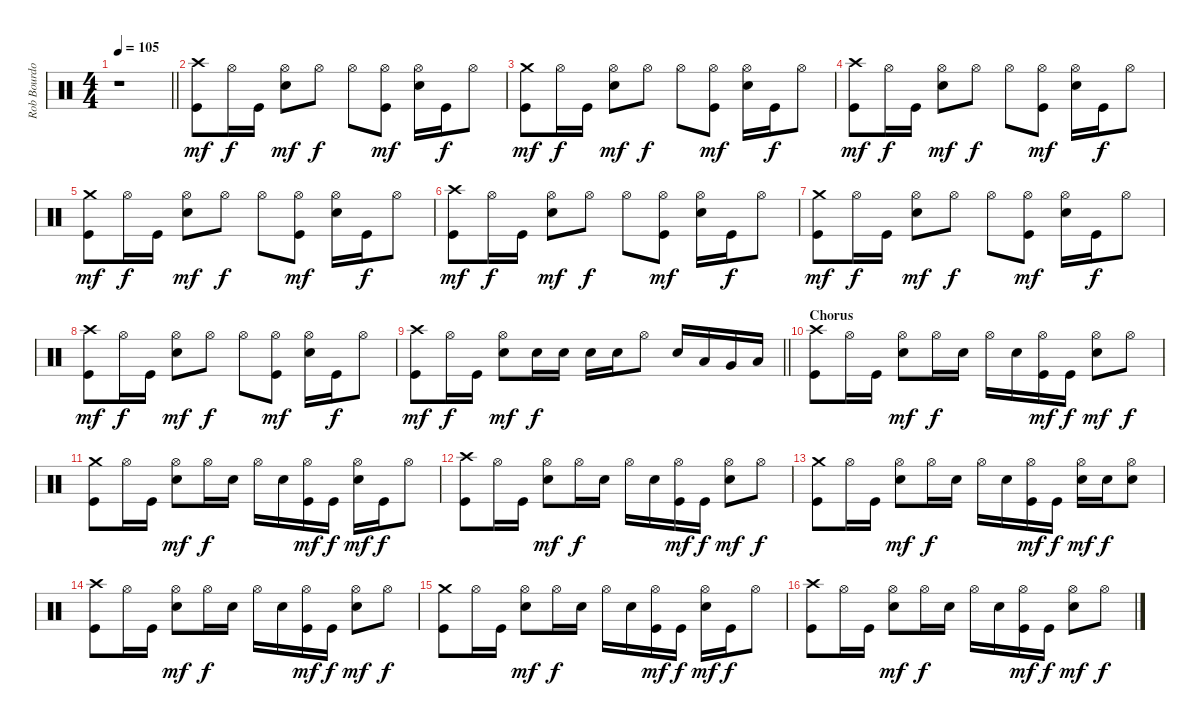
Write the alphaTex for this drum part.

\track ("Rob Bourdon - Drums" "Rob Bourdo") {instrument percussion}
\staff {score}
\articulation defaults
\ts (4 4)
\tempo 105
\clef neutral
\barLineRight lightlight
\ks c
r.1{dy f} |
("Crash high (hit)" "Kick (hit)").8{dy mf} "Hi-Hat (open)".16{dy f} "Kick (hit)".16 ("Hi-Hat (open)" "Electric Snare (hit)").8{dy mf} "Hi-Hat (open)".8{dy f} "Hi-Hat (open)".8 ("Hi-Hat (open)" "Kick (hit)").8{dy mf} ("Hi-Hat (open)" "Electric Snare (hit)").16 "Kick (hit)".16{dy f} "Hi-Hat (open)".8 |
("Crash medium (hit)" "Kick (hit)").8{dy mf} "Hi-Hat (open)".16{dy f} "Kick (hit)".16 ("Hi-Hat (open)" "Electric Snare (hit)").8{dy mf} "Hi-Hat (open)".8{dy f} "Hi-Hat (open)".8 ("Hi-Hat (open)" "Kick (hit)").8{dy mf} ("Hi-Hat (open)" "Electric Snare (hit)").16 "Kick (hit)".16{dy f} "Hi-Hat (open)".8 |
("Crash high (hit)" "Kick (hit)").8{dy mf} "Hi-Hat (open)".16{dy f} "Kick (hit)".16 ("Hi-Hat (open)" "Electric Snare (hit)").8{dy mf} "Hi-Hat (open)".8{dy f} "Hi-Hat (open)".8 ("Hi-Hat (open)" "Kick (hit)").8{dy mf} ("Hi-Hat (open)" "Electric Snare (hit)").16 "Kick (hit)".16{dy f} "Hi-Hat (open)".8 |
("Crash medium (hit)" "Kick (hit)").8{dy mf} "Hi-Hat (open)".16{dy f} "Kick (hit)".16 ("Hi-Hat (open)" "Electric Snare (hit)").8{dy mf} "Hi-Hat (open)".8{dy f} "Hi-Hat (open)".8 ("Hi-Hat (open)" "Kick (hit)").8{dy mf} ("Hi-Hat (open)" "Electric Snare (hit)").16 "Kick (hit)".16{dy f} "Hi-Hat (open)".8 |
("Crash high (hit)" "Kick (hit)").8{dy mf} "Hi-Hat (open)".16{dy f} "Kick (hit)".16 ("Hi-Hat (open)" "Electric Snare (hit)").8{dy mf} "Hi-Hat (open)".8{dy f} "Hi-Hat (open)".8 ("Hi-Hat (open)" "Kick (hit)").8{dy mf} ("Hi-Hat (open)" "Electric Snare (hit)").16 "Kick (hit)".16{dy f} "Hi-Hat (open)".8 |
("Crash medium (hit)" "Kick (hit)").8{dy mf} "Hi-Hat (open)".16{dy f} "Kick (hit)".16 ("Hi-Hat (open)" "Electric Snare (hit)").8{dy mf} "Hi-Hat (open)".8{dy f} "Hi-Hat (open)".8 ("Hi-Hat (open)" "Kick (hit)").8{dy mf} ("Hi-Hat (open)" "Electric Snare (hit)").16 "Kick (hit)".16{dy f} "Hi-Hat (open)".8 |
("Crash high (hit)" "Kick (hit)").8{dy mf} "Hi-Hat (open)".16{dy f} "Kick (hit)".16 ("Hi-Hat (open)" "Electric Snare (hit)").8{dy mf} "Hi-Hat (open)".8{dy f} "Hi-Hat (open)".8 ("Hi-Hat (open)" "Kick (hit)").8{dy mf} ("Hi-Hat (open)" "Electric Snare (hit)").16 "Kick (hit)".16{dy f} "Hi-Hat (open)".8 |
\barLineRight lightlight
("Crash high (hit)" "Kick (hit)").8{dy mf} "Hi-Hat (open)".16{dy f} "Kick (hit)".16 ("Hi-Hat (open)" "Electric Snare (hit)").8{dy mf} "Electric Snare (hit)".16{dy f} "Electric Snare (hit)".16 "Electric Snare (hit)".16 "Electric Snare (hit)".16 "Hi-Hat (open)".8 "Electric Snare (hit)".16 "Low Tom (hit)".16 "Very Low Tom (hit)".16 "Low Floor Tom (hit)".16 |
\section ("" "Chorus")
("Crash high (hit)" "Kick (hit)").8 "Hi-Hat (open)".16 "Kick (hit)".16 ("Hi-Hat (open)" "Electric Snare (hit)").8{dy mf} "Hi-Hat (open)".16{dy f} "Electric Snare (hit)".16 "Hi-Hat (open)".16 "Electric Snare (hit)".16 ("Hi-Hat (open)" "Kick (hit)").16{dy mf} "Kick (hit)".16{dy f} ("Hi-Hat (open)" "Electric Snare (hit)").8{dy mf} "Hi-Hat (open)".8{dy f} |
("Crash medium (hit)" "Kick (hit)").8 "Hi-Hat (open)".16 "Kick (hit)".16 ("Hi-Hat (open)" "Electric Snare (hit)").8{dy mf} "Hi-Hat (open)".16{dy f} "Electric Snare (hit)".16 "Hi-Hat (open)".16 "Electric Snare (hit)".16 ("Hi-Hat (open)" "Kick (hit)").16{dy mf} "Kick (hit)".16{dy f} ("Hi-Hat (open)" "Electric Snare (hit)").16{dy mf} "Kick (hit)".16{dy f} "Hi-Hat (open)".8 |
("Crash high (hit)" "Kick (hit)").8 "Hi-Hat (open)".16 "Kick (hit)".16 ("Hi-Hat (open)" "Electric Snare (hit)").8{dy mf} "Hi-Hat (open)".16{dy f} "Electric Snare (hit)".16 "Hi-Hat (open)".16 "Electric Snare (hit)".16 ("Hi-Hat (open)" "Kick (hit)").16{dy mf} "Kick (hit)".16{dy f} ("Hi-Hat (open)" "Electric Snare (hit)").8{dy mf} "Hi-Hat (open)".8{dy f} |
("Crash medium (hit)" "Kick (hit)").8 "Hi-Hat (open)".16 "Kick (hit)".16 ("Hi-Hat (open)" "Electric Snare (hit)").8{dy mf} "Hi-Hat (open)".16{dy f} "Electric Snare (hit)".16 "Hi-Hat (open)".16 "Electric Snare (hit)".16 ("Hi-Hat (open)" "Kick (hit)").16{dy mf} "Kick (hit)".16{dy f} ("Hi-Hat (open)" "Electric Snare (hit)").16{dy mf} "Electric Snare (hit)".16{dy f} ("Hi-Hat (open)" "Electric Snare (hit)").8 |
("Crash high (hit)" "Kick (hit)").8 "Hi-Hat (open)".16 "Kick (hit)".16 ("Hi-Hat (open)" "Electric Snare (hit)").8{dy mf} "Hi-Hat (open)".16{dy f} "Electric Snare (hit)".16 "Hi-Hat (open)".16 "Electric Snare (hit)".16 ("Hi-Hat (open)" "Kick (hit)").16{dy mf} "Kick (hit)".16{dy f} ("Hi-Hat (open)" "Electric Snare (hit)").8{dy mf} "Hi-Hat (open)".8{dy f} |
("Crash medium (hit)" "Kick (hit)").8 "Hi-Hat (open)".16 "Kick (hit)".16 ("Hi-Hat (open)" "Electric Snare (hit)").8{dy mf} "Hi-Hat (open)".16{dy f} "Electric Snare (hit)".16 "Hi-Hat (open)".16 "Electric Snare (hit)".16 ("Hi-Hat (open)" "Kick (hit)").16{dy mf} "Kick (hit)".16{dy f} ("Hi-Hat (open)" "Electric Snare (hit)").16{dy mf} "Kick (hit)".16{dy f} "Hi-Hat (open)".8 |
("Crash high (hit)" "Kick (hit)").8 "Hi-Hat (open)".16 "Kick (hit)".16 ("Hi-Hat (open)" "Electric Snare (hit)").8{dy mf} "Hi-Hat (open)".16{dy f} "Electric Snare (hit)".16 "Hi-Hat (open)".16 "Electric Snare (hit)".16 ("Hi-Hat (open)" "Kick (hit)").16{dy mf} "Kick (hit)".16{dy f} ("Hi-Hat (open)" "Electric Snare (hit)").8{dy mf} "Hi-Hat (open)".8{dy f}
